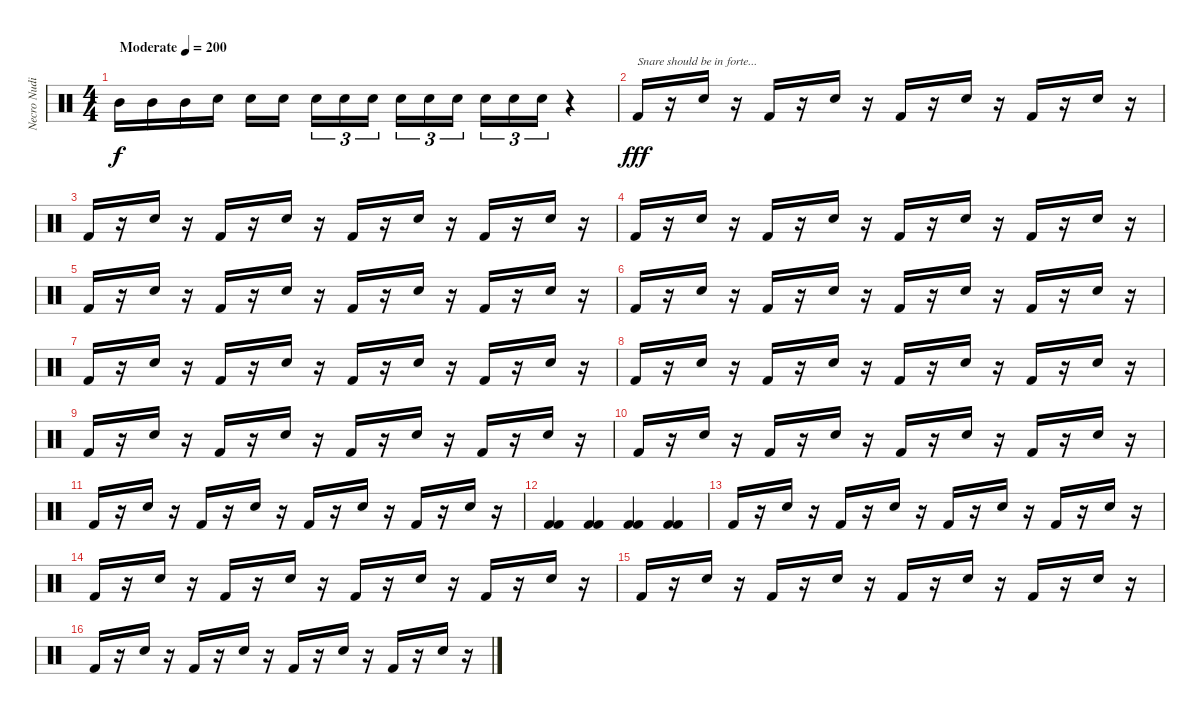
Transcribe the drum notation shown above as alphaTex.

\track ("Necro Nudist" "Necro Nudi") {instrument percussion}
\staff {score}
\articulation defaults
\ts (4 4)
\tempo (200 "Moderate")
\clef neutral
\ks c "Mid Tom (hit)".16{dy f} "Mid Tom (hit)".16 "Mid Tom (hit)".16 "Snare (hit) 2".16 "Snare (hit) 2".16 "Snare (hit) 2".16{beam splitsecondary} "Snare (hit) 2".16{tu (3 2)} "Snare (hit) 2".16{tu (3 2)} "Snare (hit) 2".16{tu (3 2)} "Snare (hit) 2".16{tu (3 2)} "Snare (hit) 2".16{tu (3 2)} "Snare (hit) 2".16{tu (3 2) beam splitsecondary} "Snare (hit) 2".16{tu (3 2)} "Snare (hit) 2".16{tu (3 2)} "Snare (hit) 2".16{tu (3 2)}
r.4 |
"Kick (hit) 2".16{txt "Snare should be in forte..." dy fff} r.16 "Snare (hit) 2".16 r.16 "Kick (hit) 2".16 r.16 "Snare (hit) 2".16 r.16 "Kick (hit) 2".16 r.16 "Snare (hit) 2".16 r.16 "Kick (hit) 2".16 r.16 "Snare (hit) 2".16 r.16 |
"Kick (hit) 2".16 r.16 "Snare (hit) 2".16 r.16 "Kick (hit) 2".16 r.16 "Snare (hit) 2".16 r.16 "Kick (hit) 2".16 r.16 "Snare (hit) 2".16 r.16 "Kick (hit) 2".16 r.16 "Snare (hit) 2".16 r.16 |
"Kick (hit) 2".16 r.16 "Snare (hit) 2".16 r.16 "Kick (hit) 2".16 r.16 "Snare (hit) 2".16 r.16 "Kick (hit) 2".16 r.16 "Snare (hit) 2".16 r.16 "Kick (hit) 2".16 r.16 "Snare (hit) 2".16 r.16 |
"Kick (hit) 2".16 r.16 "Snare (hit) 2".16 r.16 "Kick (hit) 2".16 r.16 "Snare (hit) 2".16 r.16 "Kick (hit) 2".16 r.16 "Snare (hit) 2".16 r.16 "Kick (hit) 2".16 r.16 "Snare (hit) 2".16 r.16 |
"Kick (hit) 2".16 r.16 "Snare (hit) 2".16 r.16 "Kick (hit) 2".16 r.16 "Snare (hit) 2".16 r.16 "Kick (hit) 2".16 r.16 "Snare (hit) 2".16 r.16 "Kick (hit) 2".16 r.16 "Snare (hit) 2".16 r.16 |
"Kick (hit) 2".16 r.16 "Snare (hit) 2".16 r.16 "Kick (hit) 2".16 r.16 "Snare (hit) 2".16 r.16 "Kick (hit) 2".16 r.16 "Snare (hit) 2".16 r.16 "Kick (hit) 2".16 r.16 "Snare (hit) 2".16 r.16 |
"Kick (hit) 2".16 r.16 "Snare (hit) 2".16 r.16 "Kick (hit) 2".16 r.16 "Snare (hit) 2".16 r.16 "Kick (hit) 2".16 r.16 "Snare (hit) 2".16 r.16 "Kick (hit) 2".16 r.16 "Snare (hit) 2".16 r.16 |
"Kick (hit) 2".16 r.16 "Snare (hit) 2".16 r.16 "Kick (hit) 2".16 r.16 "Snare (hit) 2".16 r.16 "Kick (hit) 2".16 r.16 "Snare (hit) 2".16 r.16 "Kick (hit) 2".16 r.16 "Snare (hit) 2".16 r.16 |
"Kick (hit) 2".16 r.16 "Snare (hit) 2".16 r.16 "Kick (hit) 2".16 r.16 "Snare (hit) 2".16 r.16 "Kick (hit) 2".16 r.16 "Snare (hit) 2".16 r.16 "Kick (hit) 2".16 r.16 "Snare (hit) 2".16 r.16 |
"Kick (hit) 2".16 r.16 "Snare (hit) 2".16 r.16 "Kick (hit) 2".16 r.16 "Snare (hit) 2".16 r.16 "Kick (hit) 2".16 r.16 "Snare (hit) 2".16 r.16 "Kick (hit) 2".16 r.16 "Snare (hit) 2".16 r.16 |
("Kick (hit) 2" "Kick (hit) 2").4 ("Kick (hit) 2" "Kick (hit) 2").4 ("Kick (hit) 2" "Kick (hit) 2").4 ("Kick (hit) 2" "Kick (hit) 2").4 |
"Kick (hit) 2".16 r.16 "Snare (hit) 2".16 r.16 "Kick (hit) 2".16 r.16 "Snare (hit) 2".16 r.16 "Kick (hit) 2".16 r.16 "Snare (hit) 2".16 r.16 "Kick (hit) 2".16 r.16 "Snare (hit) 2".16 r.16 |
"Kick (hit) 2".16 r.16 "Snare (hit) 2".16 r.16 "Kick (hit) 2".16 r.16 "Snare (hit) 2".16 r.16 "Kick (hit) 2".16 r.16 "Snare (hit) 2".16 r.16 "Kick (hit) 2".16 r.16 "Snare (hit) 2".16 r.16 |
"Kick (hit) 2".16 r.16 "Snare (hit) 2".16 r.16 "Kick (hit) 2".16 r.16 "Snare (hit) 2".16 r.16 "Kick (hit) 2".16 r.16 "Snare (hit) 2".16 r.16 "Kick (hit) 2".16 r.16 "Snare (hit) 2".16 r.16 |
"Kick (hit) 2".16 r.16 "Snare (hit) 2".16 r.16 "Kick (hit) 2".16 r.16 "Snare (hit) 2".16 r.16 "Kick (hit) 2".16 r.16 "Snare (hit) 2".16 r.16 "Kick (hit) 2".16 r.16 "Snare (hit) 2".16 r.16
